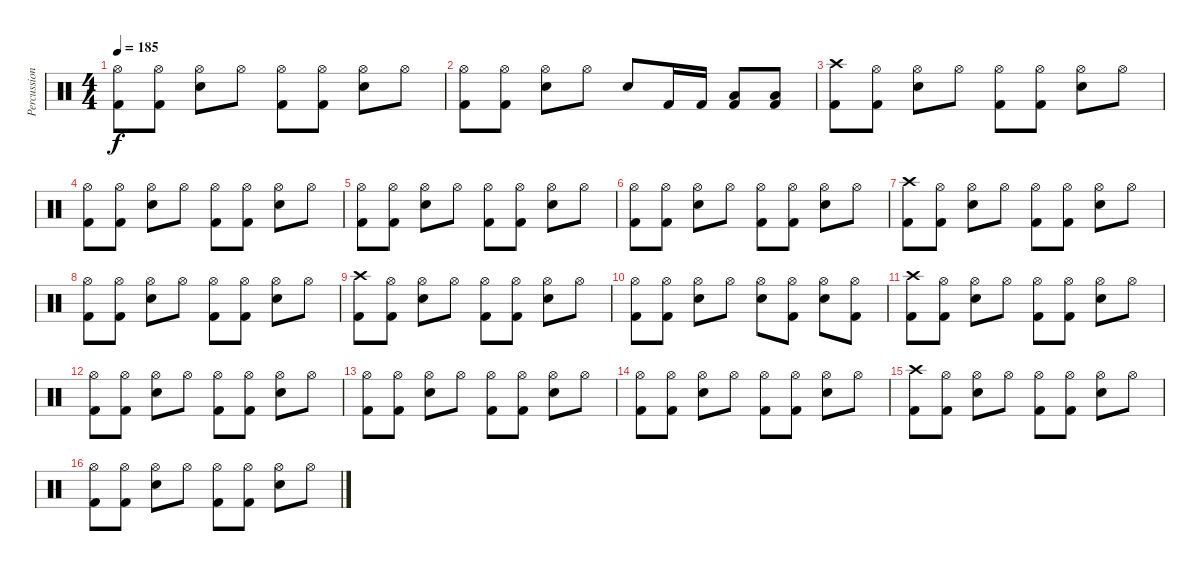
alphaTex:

\track ("Percussion" "Percussion") {instrument percussion}
\staff {score}
\articulation defaults
\ts (4 4)
\tempo 185
\clef neutral
\ks c
("Hi-Hat (open)" "Kick (hit) 2").8{dy f} ("Hi-Hat (open)" "Kick (hit) 2").8 ("Hi-Hat (open)" "Snare (hit) 2").8 "Hi-Hat (open)".8 ("Hi-Hat (open)" "Kick (hit) 2").8 ("Hi-Hat (open)" "Kick (hit) 2").8 ("Hi-Hat (open)" "Snare (hit) 2").8 "Hi-Hat (open)".8 |
("Hi-Hat (open)" "Kick (hit) 2").8 ("Hi-Hat (open)" "Kick (hit) 2").8 ("Hi-Hat (open)" "Snare (hit) 2").8 "Hi-Hat (open)".8 "Snare (hit) 2".8 "Kick (hit) 2".16 "Kick (hit) 2".16 ("Low Tom (hit)" "Kick (hit) 2").8 ("Low Tom (hit)" "Kick (hit) 2").8 |
("Crash high (hit)" "Kick (hit) 2").8 ("Hi-Hat (open)" "Kick (hit) 2").8 ("Hi-Hat (open)" "Snare (hit) 2").8 "Hi-Hat (open)".8 ("Hi-Hat (open)" "Kick (hit) 2").8 ("Hi-Hat (open)" "Kick (hit) 2").8 ("Hi-Hat (open)" "Snare (hit) 2").8 "Hi-Hat (open)".8 |
("Hi-Hat (open)" "Kick (hit) 2").8 ("Hi-Hat (open)" "Kick (hit) 2").8 ("Hi-Hat (open)" "Snare (hit) 2").8 "Hi-Hat (open)".8 ("Hi-Hat (open)" "Kick (hit) 2").8 ("Hi-Hat (open)" "Kick (hit) 2").8 ("Hi-Hat (open)" "Snare (hit) 2").8 "Hi-Hat (open)".8 |
("Hi-Hat (open)" "Kick (hit) 2").8 ("Hi-Hat (open)" "Kick (hit) 2").8 ("Hi-Hat (open)" "Snare (hit) 2").8 "Hi-Hat (open)".8 ("Hi-Hat (open)" "Kick (hit) 2").8 ("Hi-Hat (open)" "Kick (hit) 2").8 ("Hi-Hat (open)" "Snare (hit) 2").8 "Hi-Hat (open)".8 |
("Hi-Hat (open)" "Kick (hit) 2").8 ("Hi-Hat (open)" "Kick (hit) 2").8 ("Hi-Hat (open)" "Snare (hit) 2").8 "Hi-Hat (open)".8 ("Hi-Hat (open)" "Kick (hit) 2").8 ("Hi-Hat (open)" "Kick (hit) 2").8 ("Hi-Hat (open)" "Snare (hit) 2").8 "Hi-Hat (open)".8 |
("Crash high (hit)" "Kick (hit) 2").8 ("Hi-Hat (open)" "Kick (hit) 2").8 ("Hi-Hat (open)" "Snare (hit) 2").8 "Hi-Hat (open)".8 ("Hi-Hat (open)" "Kick (hit) 2").8 ("Hi-Hat (open)" "Kick (hit) 2").8 ("Hi-Hat (open)" "Snare (hit) 2").8 "Hi-Hat (open)".8 |
("Hi-Hat (open)" "Kick (hit) 2").8 ("Hi-Hat (open)" "Kick (hit) 2").8 ("Hi-Hat (open)" "Snare (hit) 2").8 "Hi-Hat (open)".8 ("Hi-Hat (open)" "Kick (hit) 2").8 ("Hi-Hat (open)" "Kick (hit) 2").8 ("Hi-Hat (open)" "Snare (hit) 2").8 "Hi-Hat (open)".8 |
("Crash high (hit)" "Kick (hit) 2").8 ("Hi-Hat (open)" "Kick (hit) 2").8 ("Hi-Hat (open)" "Snare (hit) 2").8 "Hi-Hat (open)".8 ("Hi-Hat (open)" "Kick (hit) 2").8 ("Hi-Hat (open)" "Kick (hit) 2").8 ("Hi-Hat (open)" "Snare (hit) 2").8 "Hi-Hat (open)".8 |
("Hi-Hat (open)" "Kick (hit) 2").8 ("Hi-Hat (open)" "Kick (hit) 2").8 ("Hi-Hat (open)" "Snare (hit) 2").8 "Hi-Hat (open)".8 ("Hi-Hat (open)" "Snare (hit) 2").8 ("Hi-Hat (open)" "Kick (hit) 2").8 ("Hi-Hat (open)" "Snare (hit) 2").8 ("Hi-Hat (open)" "Kick (hit) 2").8 |
("Crash high (hit)" "Kick (hit) 2").8 ("Hi-Hat (open)" "Kick (hit) 2").8 ("Hi-Hat (open)" "Snare (hit) 2").8 "Hi-Hat (open)".8 ("Hi-Hat (open)" "Kick (hit) 2").8 ("Hi-Hat (open)" "Kick (hit) 2").8 ("Hi-Hat (open)" "Snare (hit) 2").8 "Hi-Hat (open)".8 |
("Hi-Hat (open)" "Kick (hit) 2").8 ("Hi-Hat (open)" "Kick (hit) 2").8 ("Hi-Hat (open)" "Snare (hit) 2").8 "Hi-Hat (open)".8 ("Hi-Hat (open)" "Kick (hit) 2").8 ("Hi-Hat (open)" "Kick (hit) 2").8 ("Hi-Hat (open)" "Snare (hit) 2").8 "Hi-Hat (open)".8 |
("Hi-Hat (open)" "Kick (hit) 2").8 ("Hi-Hat (open)" "Kick (hit) 2").8 ("Hi-Hat (open)" "Snare (hit) 2").8 "Hi-Hat (open)".8 ("Hi-Hat (open)" "Kick (hit) 2").8 ("Hi-Hat (open)" "Kick (hit) 2").8 ("Hi-Hat (open)" "Snare (hit) 2").8 "Hi-Hat (open)".8 |
("Hi-Hat (open)" "Kick (hit) 2").8 ("Hi-Hat (open)" "Kick (hit) 2").8 ("Hi-Hat (open)" "Snare (hit) 2").8 "Hi-Hat (open)".8 ("Hi-Hat (open)" "Kick (hit) 2").8 ("Hi-Hat (open)" "Kick (hit) 2").8 ("Hi-Hat (open)" "Snare (hit) 2").8 "Hi-Hat (open)".8 |
("Crash high (hit)" "Kick (hit) 2").8 ("Hi-Hat (open)" "Kick (hit) 2").8 ("Hi-Hat (open)" "Snare (hit) 2").8 "Hi-Hat (open)".8 ("Hi-Hat (open)" "Kick (hit) 2").8 ("Hi-Hat (open)" "Kick (hit) 2").8 ("Hi-Hat (open)" "Snare (hit) 2").8 "Hi-Hat (open)".8 |
("Hi-Hat (open)" "Kick (hit) 2").8 ("Hi-Hat (open)" "Kick (hit) 2").8 ("Hi-Hat (open)" "Snare (hit) 2").8 "Hi-Hat (open)".8 ("Hi-Hat (open)" "Kick (hit) 2").8 ("Hi-Hat (open)" "Kick (hit) 2").8 ("Hi-Hat (open)" "Snare (hit) 2").8 "Hi-Hat (open)".8
